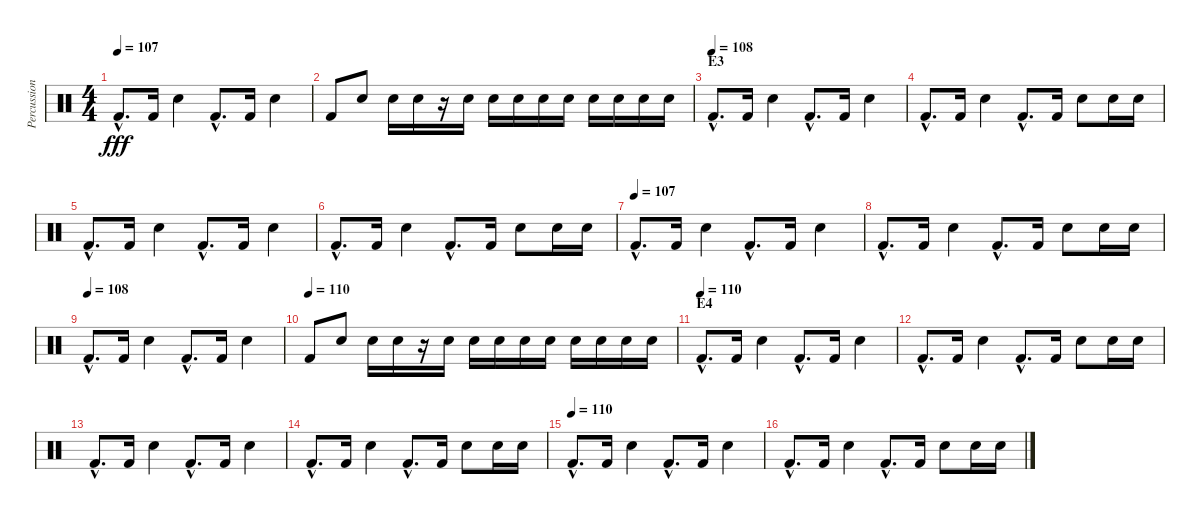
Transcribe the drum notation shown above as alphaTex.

\track ("Percussion" "Percussion") {instrument percussion}
\staff {score}
\articulation defaults
\ts (4 4)
\tempo 107
\clef neutral
\ks c "Kick (hit) 2"{hac}.8{d dy fff} "Kick (hit) 2".16 "Electric Snare (hit)".4 "Kick (hit) 2"{hac}.8{d} "Kick (hit) 2".16 "Electric Snare (hit)".4
|
"Kick (hit) 2".8 "Electric Snare (hit)".8 "Electric Snare (hit)".16 "Electric Snare (hit)".16 r.16 "Electric Snare (hit)".16 "Electric Snare (hit)".16 "Electric Snare (hit)".16 "Electric Snare (hit)".16 "Electric Snare (hit)".16 "Electric Snare (hit)".16 "Electric Snare (hit)".16 "Electric Snare (hit)".16 "Electric Snare (hit)".16 |
\section ("" "E3")
\tempo (108)
"Kick (hit) 2"{hac}.8{d} "Kick (hit) 2".16 "Electric Snare (hit)".4 "Kick (hit) 2"{hac}.8{d} "Kick (hit) 2".16 "Electric Snare (hit)".4 |
"Kick (hit) 2"{hac}.8{d} "Kick (hit) 2".16 "Electric Snare (hit)".4 "Kick (hit) 2"{hac}.8{d} "Kick (hit) 2".16 "Electric Snare (hit)".8 "Electric Snare (hit)".16 "Electric Snare (hit)".16 |
"Kick (hit) 2"{hac}.8{d} "Kick (hit) 2".16 "Electric Snare (hit)".4 "Kick (hit) 2"{hac}.8{d} "Kick (hit) 2".16 "Electric Snare (hit)".4 |
"Kick (hit) 2"{hac}.8{d} "Kick (hit) 2".16 "Electric Snare (hit)".4 "Kick (hit) 2"{hac}.8{d} "Kick (hit) 2".16 "Electric Snare (hit)".8 "Electric Snare (hit)".16 "Electric Snare (hit)".16 |
\tempo (107)
"Kick (hit) 2"{hac}.8{d} "Kick (hit) 2".16 "Electric Snare (hit)".4 "Kick (hit) 2"{hac}.8{d} "Kick (hit) 2".16 "Electric Snare (hit)".4 |
"Kick (hit) 2"{hac}.8{d} "Kick (hit) 2".16 "Electric Snare (hit)".4 "Kick (hit) 2"{hac}.8{d} "Kick (hit) 2".16 "Electric Snare (hit)".8 "Electric Snare (hit)".16 "Electric Snare (hit)".16 |
\tempo (108)
"Kick (hit) 2"{hac}.8{d} "Kick (hit) 2".16 "Electric Snare (hit)".4 "Kick (hit) 2"{hac}.8{d} "Kick (hit) 2".16 "Electric Snare (hit)".4 |
\tempo (110)
"Kick (hit) 2".8 "Electric Snare (hit)".8 "Electric Snare (hit)".16 "Electric Snare (hit)".16 r.16 "Electric Snare (hit)".16 "Electric Snare (hit)".16 "Electric Snare (hit)".16 "Electric Snare (hit)".16 "Electric Snare (hit)".16 "Electric Snare (hit)".16 "Electric Snare (hit)".16 "Electric Snare (hit)".16 "Electric Snare (hit)".16 |
\section ("" "E4")
\tempo (110)
"Kick (hit) 2"{hac}.8{d} "Kick (hit) 2".16 "Electric Snare (hit)".4 "Kick (hit) 2"{hac}.8{d} "Kick (hit) 2".16 "Electric Snare (hit)".4 |
"Kick (hit) 2"{hac}.8{d} "Kick (hit) 2".16 "Electric Snare (hit)".4 "Kick (hit) 2"{hac}.8{d} "Kick (hit) 2".16 "Electric Snare (hit)".8 "Electric Snare (hit)".16 "Electric Snare (hit)".16 |
"Kick (hit) 2"{hac}.8{d} "Kick (hit) 2".16 "Electric Snare (hit)".4 "Kick (hit) 2"{hac}.8{d} "Kick (hit) 2".16 "Electric Snare (hit)".4 |
"Kick (hit) 2"{hac}.8{d} "Kick (hit) 2".16 "Electric Snare (hit)".4 "Kick (hit) 2"{hac}.8{d} "Kick (hit) 2".16 "Electric Snare (hit)".8 "Electric Snare (hit)".16 "Electric Snare (hit)".16 |
\tempo (110)
"Kick (hit) 2"{hac}.8{d} "Kick (hit) 2".16 "Electric Snare (hit)".4 "Kick (hit) 2"{hac}.8{d} "Kick (hit) 2".16 "Electric Snare (hit)".4 |
"Kick (hit) 2"{hac}.8{d} "Kick (hit) 2".16 "Electric Snare (hit)".4 "Kick (hit) 2"{hac}.8{d} "Kick (hit) 2".16 "Electric Snare (hit)".8 "Electric Snare (hit)".16 "Electric Snare (hit)".16
